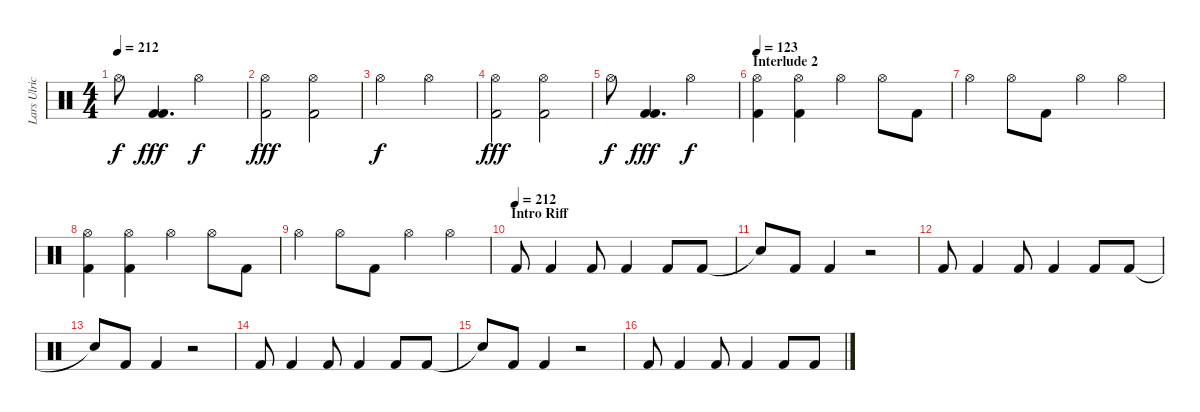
\track ("Lars Ulrich" "Lars Ulric") {instrument percussion}
\staff {score}
\articulation defaults
\ts (4 4)
\tempo 212
\clef neutral
\ks c "Hi-Hat (open)".8{dy f}
("Kick (hit) 2" "Kick (hit) 2").4{d dy fff} "Hi-Hat (open)".2{dy f} |
("Hi-Hat (open)" "Kick (hit) 2").2{dy fff} ("Hi-Hat (open)" "Kick (hit) 2").2 |
"Hi-Hat (open)".2{dy f} "Hi-Hat (open)".2 |
("Hi-Hat (open)" "Kick (hit) 2").2{dy fff} ("Hi-Hat (open)" "Kick (hit) 2").2 |
"Hi-Hat (open)".8{dy f} ("Kick (hit) 2" "Kick (hit) 2").4{d dy fff} "Hi-Hat (open)".2{dy f} |
\section ("" "Interlude 2")
\tempo 123
("Hi-Hat (open)" "Kick (hit) 2").4 ("Hi-Hat (open)" "Kick (hit) 2").4 "Hi-Hat (open)".4 "Hi-Hat (open)".8 "Kick (hit) 2".8 |
"Hi-Hat (open)".4 "Hi-Hat (open)".8 "Kick (hit) 2".8 "Hi-Hat (open)".4 "Hi-Hat (open)".4 |
("Hi-Hat (open)" "Kick (hit) 2").4 ("Hi-Hat (open)" "Kick (hit) 2").4 "Hi-Hat (open)".4 "Hi-Hat (open)".8 "Kick (hit) 2".8 |
"Hi-Hat (open)".4 "Hi-Hat (open)".8 "Kick (hit) 2".8 "Hi-Hat (open)".4 "Hi-Hat (open)".4 |
\section ("" "Intro Riff")
\tempo (212)
"Kick (hit) 2".8 "Kick (hit) 2".4 "Kick (hit) 2".8 "Kick (hit) 2".4 "Kick (hit) 2".8 "Kick (hit) 2".8 |
"Snare (hit)"{t}.8 "Kick (hit) 2".8 "Kick (hit) 2".4 r.2 |
"Kick (hit) 2".8 "Kick (hit) 2".4 "Kick (hit) 2".8 "Kick (hit) 2".4 "Kick (hit) 2".8 "Kick (hit) 2".8 |
"Snare (hit)"{t}.8 "Kick (hit) 2".8 "Kick (hit) 2".4 r.2 |
"Kick (hit) 2".8 "Kick (hit) 2".4 "Kick (hit) 2".8 "Kick (hit) 2".4 "Kick (hit) 2".8 "Kick (hit) 2".8 |
"Snare (hit)"{t}.8 "Kick (hit) 2".8 "Kick (hit) 2".4 r.2 |
"Kick (hit) 2".8 "Kick (hit) 2".4 "Kick (hit) 2".8 "Kick (hit) 2".4 "Kick (hit) 2".8 "Kick (hit) 2".8
